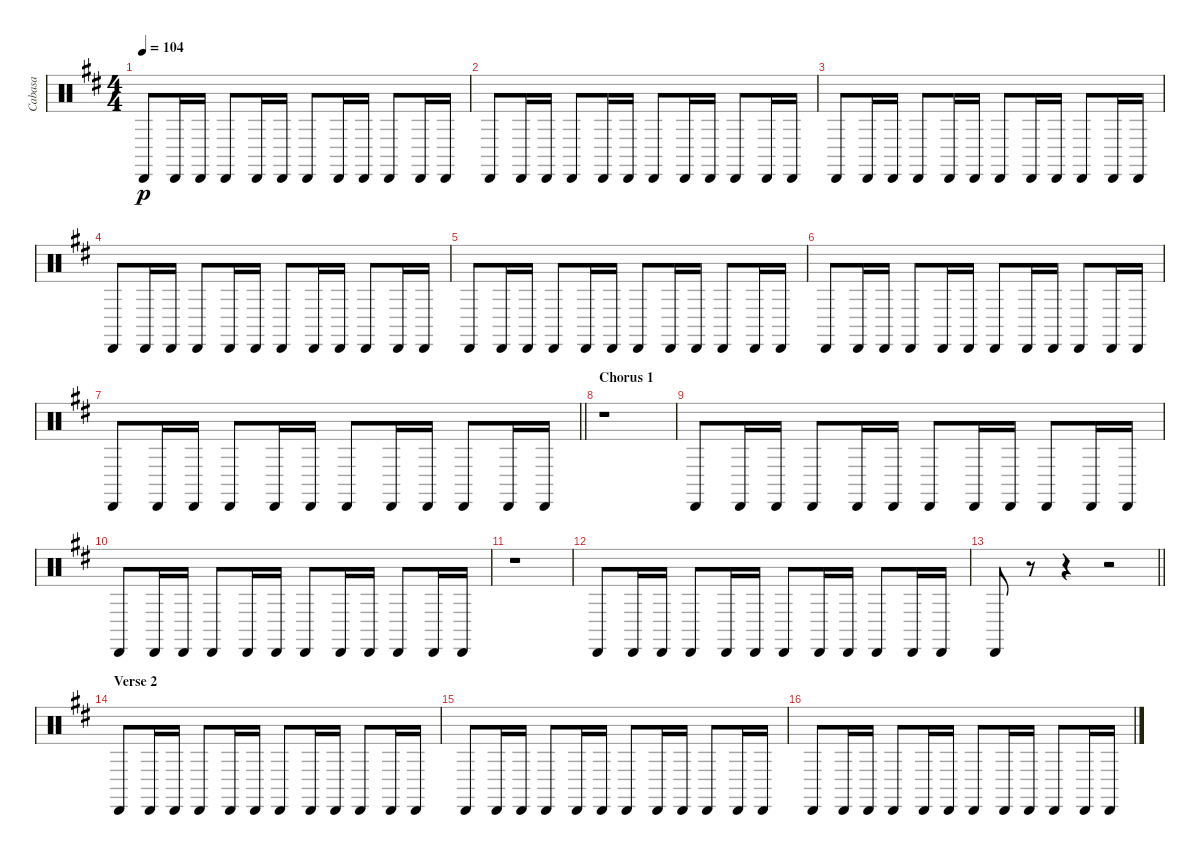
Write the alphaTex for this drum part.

\track ("Cabasa" "Cabasa") {instrument percussion}
\staff {score}
\articulation defaults
\ts (4 4)
\tempo 104
\clef neutral
\ks bminor "Cabasa (hit)".8{dy p} "Cabasa (hit)".16 "Cabasa (hit)".16 "Cabasa (hit)".8 "Cabasa (hit)".16 "Cabasa (hit)".16 "Cabasa (hit)".8 "Cabasa (hit)".16 "Cabasa (hit)".16 "Cabasa (hit)".8 "Cabasa (hit)".16 "Cabasa (hit)".16
|
"Cabasa (hit)".8 "Cabasa (hit)".16 "Cabasa (hit)".16 "Cabasa (hit)".8 "Cabasa (hit)".16 "Cabasa (hit)".16 "Cabasa (hit)".8 "Cabasa (hit)".16 "Cabasa (hit)".16 "Cabasa (hit)".8 "Cabasa (hit)".16 "Cabasa (hit)".16 |
"Cabasa (hit)".8 "Cabasa (hit)".16 "Cabasa (hit)".16 "Cabasa (hit)".8 "Cabasa (hit)".16 "Cabasa (hit)".16 "Cabasa (hit)".8 "Cabasa (hit)".16 "Cabasa (hit)".16 "Cabasa (hit)".8 "Cabasa (hit)".16 "Cabasa (hit)".16 |
"Cabasa (hit)".8 "Cabasa (hit)".16 "Cabasa (hit)".16 "Cabasa (hit)".8 "Cabasa (hit)".16 "Cabasa (hit)".16 "Cabasa (hit)".8 "Cabasa (hit)".16 "Cabasa (hit)".16 "Cabasa (hit)".8 "Cabasa (hit)".16 "Cabasa (hit)".16 |
"Cabasa (hit)".8 "Cabasa (hit)".16 "Cabasa (hit)".16 "Cabasa (hit)".8 "Cabasa (hit)".16 "Cabasa (hit)".16 "Cabasa (hit)".8 "Cabasa (hit)".16 "Cabasa (hit)".16 "Cabasa (hit)".8 "Cabasa (hit)".16 "Cabasa (hit)".16 |
"Cabasa (hit)".8 "Cabasa (hit)".16 "Cabasa (hit)".16 "Cabasa (hit)".8 "Cabasa (hit)".16 "Cabasa (hit)".16 "Cabasa (hit)".8 "Cabasa (hit)".16 "Cabasa (hit)".16 "Cabasa (hit)".8 "Cabasa (hit)".16 "Cabasa (hit)".16 |
\barLineRight lightlight "Cabasa (hit)".8 "Cabasa (hit)".16 "Cabasa (hit)".16 "Cabasa (hit)".8 "Cabasa (hit)".16 "Cabasa (hit)".16 "Cabasa (hit)".8 "Cabasa (hit)".16 "Cabasa (hit)".16 "Cabasa (hit)".8 "Cabasa (hit)".16 "Cabasa (hit)".16
|
\section ("" "Chorus 1")
r.1 |
"Cabasa (hit)".8 "Cabasa (hit)".16 "Cabasa (hit)".16 "Cabasa (hit)".8 "Cabasa (hit)".16 "Cabasa (hit)".16 "Cabasa (hit)".8 "Cabasa (hit)".16 "Cabasa (hit)".16 "Cabasa (hit)".8 "Cabasa (hit)".16 "Cabasa (hit)".16 |
"Cabasa (hit)".8 "Cabasa (hit)".16 "Cabasa (hit)".16 "Cabasa (hit)".8 "Cabasa (hit)".16 "Cabasa (hit)".16 "Cabasa (hit)".8 "Cabasa (hit)".16 "Cabasa (hit)".16 "Cabasa (hit)".8 "Cabasa (hit)".16 "Cabasa (hit)".16 |
r.1 |
"Cabasa (hit)".8 "Cabasa (hit)".16 "Cabasa (hit)".16 "Cabasa (hit)".8 "Cabasa (hit)".16 "Cabasa (hit)".16 "Cabasa (hit)".8 "Cabasa (hit)".16 "Cabasa (hit)".16 "Cabasa (hit)".8 "Cabasa (hit)".16 "Cabasa (hit)".16 |
\barLineRight lightlight "Cabasa (hit)".8
r.8 r.4 r.2 |
\section ("" "Verse 2")
"Cabasa (hit)".8 "Cabasa (hit)".16 "Cabasa (hit)".16 "Cabasa (hit)".8 "Cabasa (hit)".16 "Cabasa (hit)".16 "Cabasa (hit)".8 "Cabasa (hit)".16 "Cabasa (hit)".16 "Cabasa (hit)".8 "Cabasa (hit)".16 "Cabasa (hit)".16 |
"Cabasa (hit)".8 "Cabasa (hit)".16 "Cabasa (hit)".16 "Cabasa (hit)".8 "Cabasa (hit)".16 "Cabasa (hit)".16 "Cabasa (hit)".8 "Cabasa (hit)".16 "Cabasa (hit)".16 "Cabasa (hit)".8 "Cabasa (hit)".16 "Cabasa (hit)".16 |
"Cabasa (hit)".8 "Cabasa (hit)".16 "Cabasa (hit)".16 "Cabasa (hit)".8 "Cabasa (hit)".16 "Cabasa (hit)".16 "Cabasa (hit)".8 "Cabasa (hit)".16 "Cabasa (hit)".16 "Cabasa (hit)".8 "Cabasa (hit)".16 "Cabasa (hit)".16
